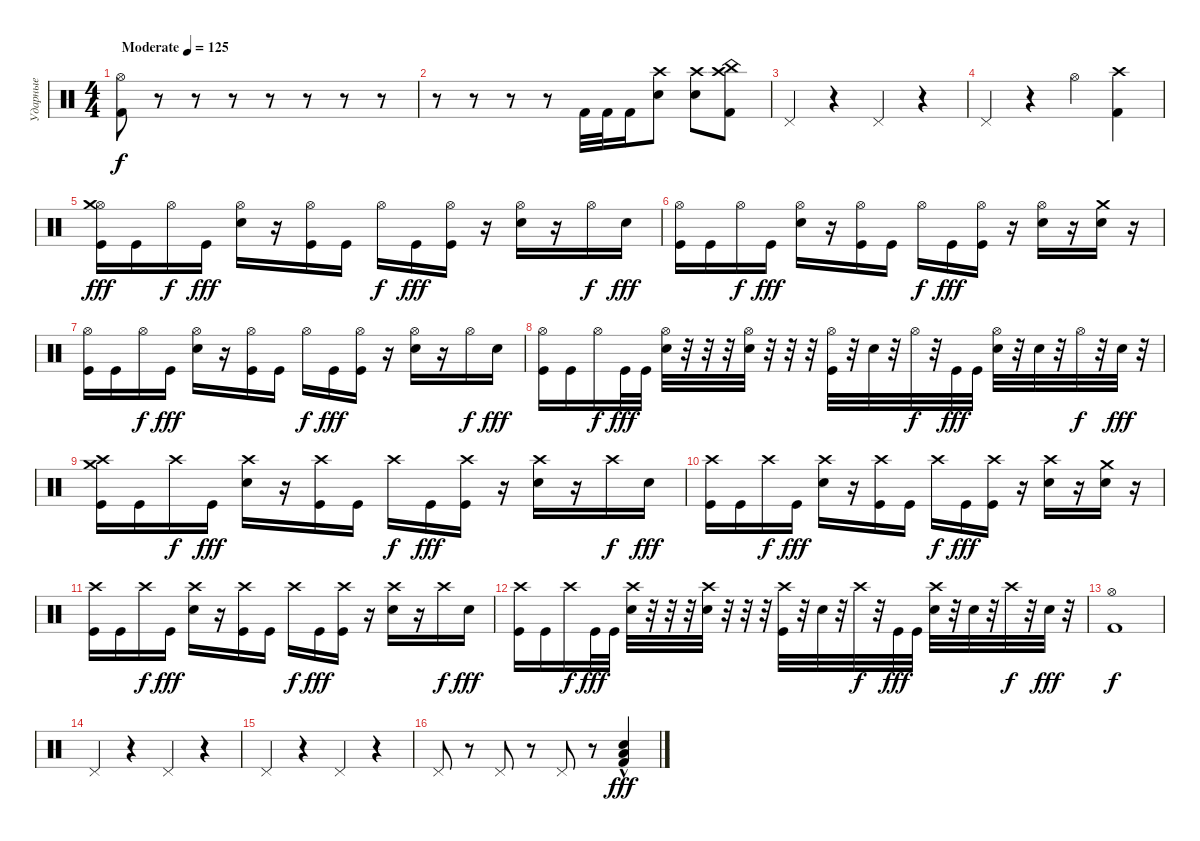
\track ("Ударные" "Ударные") {instrument percussion}
\staff {score}
\articulation defaults
\ts (4 4)
\tempo (125 "Moderate")
\clef neutral
\ks c
("Hi-Hat (open)" "Kick (hit) 2").8{dy f} r.8 r.8 r.8 r.8 r.8 r.8 r.8 |
r.8 r.8 r.8 r.8 "Kick (hit) 2".32 "Kick (hit) 2".32 "Kick (hit) 2".16 ("Electric Snare (hit)" "Crash high (hit)").8 ("Electric Snare (hit)" "Crash high (hit)").8 ("China (hit)" "Crash high (hit)" "Kick (hit) 2").8 |
"Pedal Hi-Hat (hit)".4 r.4 "Pedal Hi-Hat (hit)".4 r.4 |
"Pedal Hi-Hat (hit)".4 r.4 "Hi-Hat (open)".4 ("Kick (hit) 2" "Crash high (hit)").4 |
("Hi-Hat (open)" "Crash medium (hit)" "Kick (hit)").16{dy fff} "Kick (hit)".16 "Hi-Hat (open)".16{dy f} "Kick (hit)".16{dy fff} ("Hi-Hat (open)" "Electric Snare (hit)").16 r.16 ("Hi-Hat (open)" "Kick (hit)").16 "Kick (hit)".16 "Hi-Hat (open)".16{dy f} "Kick (hit)".16{dy fff} ("Hi-Hat (open)" "Kick (hit)").16 r.16 ("Hi-Hat (open)" "Electric Snare (hit)").16 r.16 "Hi-Hat (open)".16{dy f} "Electric Snare (hit)".16{dy fff} |
("Hi-Hat (open)" "Kick (hit)").16 "Kick (hit)".16 "Hi-Hat (open)".16{dy f} "Kick (hit)".16{dy fff} ("Hi-Hat (open)" "Electric Snare (hit)").16 r.16 ("Hi-Hat (open)" "Kick (hit)").16 "Kick (hit)".16 "Hi-Hat (open)".16{dy f} "Kick (hit)".16{dy fff} ("Hi-Hat (open)" "Kick (hit)").16 r.16 ("Hi-Hat (open)" "Electric Snare (hit)").16 r.16 ("Crash medium (hit)" "Electric Snare (hit)").16 r.16 |
("Hi-Hat (open)" "Kick (hit)").16 "Kick (hit)".16 "Hi-Hat (open)".16{dy f} "Kick (hit)".16{dy fff} ("Hi-Hat (open)" "Electric Snare (hit)").16 r.16 ("Hi-Hat (open)" "Kick (hit)").16 "Kick (hit)".16 "Hi-Hat (open)".16{dy f} "Kick (hit)".16{dy fff} ("Hi-Hat (open)" "Kick (hit)").16 r.16 ("Hi-Hat (open)" "Electric Snare (hit)").16 r.16 "Hi-Hat (open)".16{dy f} "Electric Snare (hit)".16{dy fff} |
("Hi-Hat (open)" "Kick (hit)").16 "Kick (hit)".16 "Hi-Hat (open)".16{dy f} "Kick (hit)".32{dy fff} "Kick (hit)".32 ("Hi-Hat (open)" "Electric Snare (hit)").32 r.32 r.32 r.32 ("Hi-Hat (open)" "Electric Snare (hit)").32 r.32 r.32 r.32 ("Hi-Hat (open)" "Kick (hit)").32 r.32 "Electric Snare (hit)".32 r.32 "Hi-Hat (open)".32{dy f} r.32 "Kick (hit)".32{dy fff} "Kick (hit)".32 ("Hi-Hat (open)" "Electric Snare (hit)").32 r.32 "Electric Snare (hit)".32 r.32 "Hi-Hat (open)".32{dy f} r.32 "Electric Snare (hit)".32{dy fff} r.32 |
("Crash high (hit)" "Crash medium (hit)" "Kick (hit)").16 "Kick (hit)".16 "Crash high (hit)".16{dy f} "Kick (hit)".16{dy fff} ("Crash high (hit)" "Electric Snare (hit)").16 r.16 ("Crash high (hit)" "Kick (hit)").16 "Kick (hit)".16 "Crash high (hit)".16{dy f} "Kick (hit)".16{dy fff} ("Crash high (hit)" "Kick (hit)").16 r.16 ("Crash high (hit)" "Electric Snare (hit)").16 r.16 "Crash high (hit)".16{dy f} "Electric Snare (hit)".16{dy fff} |
("Crash high (hit)" "Kick (hit)").16 "Kick (hit)".16 "Crash high (hit)".16{dy f} "Kick (hit)".16{dy fff} ("Crash high (hit)" "Electric Snare (hit)").16 r.16 ("Crash high (hit)" "Kick (hit)").16 "Kick (hit)".16 "Crash high (hit)".16{dy f} "Kick (hit)".16{dy fff} ("Crash high (hit)" "Kick (hit)").16 r.16 ("Crash high (hit)" "Electric Snare (hit)").16 r.16 ("Crash medium (hit)" "Electric Snare (hit)").16 r.16 |
("Crash high (hit)" "Kick (hit)").16 "Kick (hit)".16 "Crash high (hit)".16{dy f} "Kick (hit)".16{dy fff} ("Crash high (hit)" "Electric Snare (hit)").16 r.16 ("Crash high (hit)" "Kick (hit)").16 "Kick (hit)".16 "Crash high (hit)".16{dy f} "Kick (hit)".16{dy fff} ("Crash high (hit)" "Kick (hit)").16 r.16 ("Crash high (hit)" "Electric Snare (hit)").16 r.16 "Crash high (hit)".16{dy f} "Electric Snare (hit)".16{dy fff} |
("Crash high (hit)" "Kick (hit)").16 "Kick (hit)".16 "Crash high (hit)".16{dy f} "Kick (hit)".32{dy fff} "Kick (hit)".32 ("Crash high (hit)" "Electric Snare (hit)").32 r.32 r.32 r.32 ("Crash high (hit)" "Electric Snare (hit)").32 r.32 r.32 r.32 ("Crash high (hit)" "Kick (hit)").32 r.32 "Electric Snare (hit)".32 r.32 "Crash high (hit)".32{dy f} r.32 "Kick (hit)".32{dy fff} "Kick (hit)".32 ("Crash high (hit)" "Electric Snare (hit)").32 r.32 "Electric Snare (hit)".32 r.32 "Crash high (hit)".32{dy f} r.32 "Electric Snare (hit)".32{dy fff} r.32 |
("Kick (hit) 2" "Hi-Hat (open)").1{dy f} |
"Pedal Hi-Hat (hit)".4 r.4 "Pedal Hi-Hat (hit)".4 r.4 |
"Pedal Hi-Hat (hit)".4 r.4 "Pedal Hi-Hat (hit)".4 r.4 |
"Pedal Hi-Hat (hit)".8 r.8 "Pedal Hi-Hat (hit)".8 r.8 "Pedal Hi-Hat (hit)".8 r.8 ("Electric Snare (hit)"{hac} "Low Floor Tom (hit)"{hac} "Kick (hit) 2"{hac}).4{dy fff}
